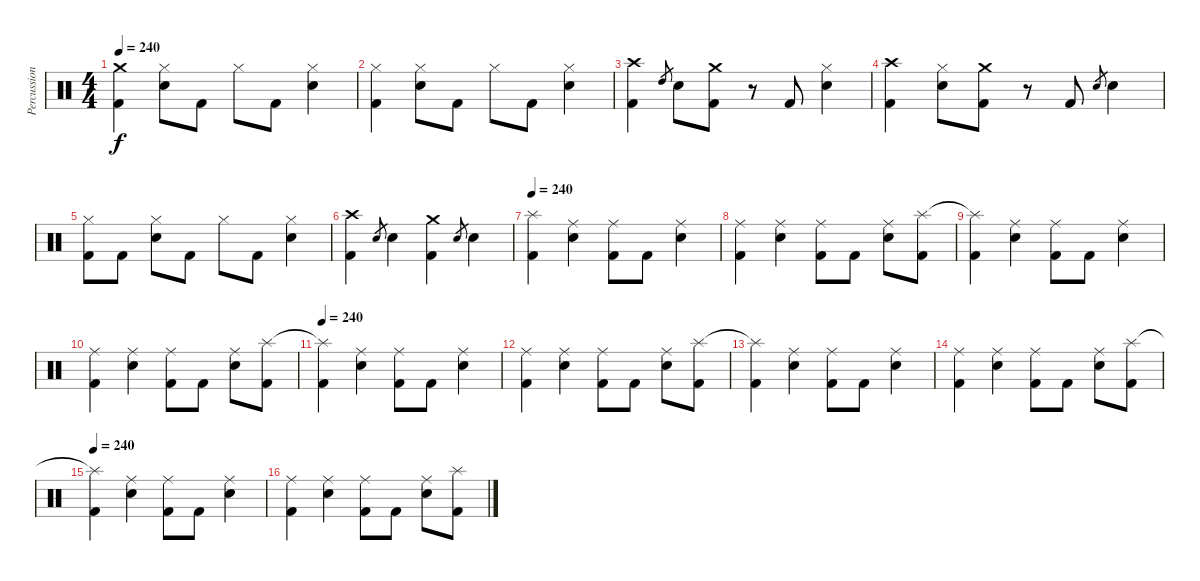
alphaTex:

\track ("Percussions" "Percussion") {instrument percussion}
\staff {score}
\articulation defaults
\ts (4 4)
\tempo 240
\clef neutral
\ks c
("Crash medium (hit)" "Kick (hit) 2").4{dy f} ("Hi-Hat (closed)" "Electric Snare (hit)").8 "Kick (hit) 2".8 "Hi-Hat (closed)".8 "Kick (hit) 2".8 ("Hi-Hat (closed)" "Electric Snare (hit)").4 |
("Hi-Hat (closed)" "Kick (hit) 2").4 ("Hi-Hat (closed)" "Electric Snare (hit)").8 "Kick (hit) 2".8 "Hi-Hat (closed)".8 "Kick (hit) 2".8 ("Hi-Hat (closed)" "Electric Snare (hit)").4 |
("Crash high (hit)" "Kick (hit) 2").4 "High Tom (hit)".8{gr} "Electric Snare (hit)".8 ("Crash medium (hit)" "Kick (hit) 2").8 r.8 "Kick (hit) 2".8 ("Hi-Hat (closed)" "Electric Snare (hit)").4 |
("Crash high (hit)" "Kick (hit) 2").4 ("Hi-Hat (closed)" "Electric Snare (hit)").8 ("Crash medium (hit)" "Kick (hit) 2").8 r.8 "Kick (hit) 2".8 "Electric Snare (hit)".8{gr} "Electric Snare (hit)".4 |
("Hi-Hat (closed)" "Kick (hit) 2").8 "Kick (hit) 2".8 ("Hi-Hat (closed)" "Electric Snare (hit)").8 "Kick (hit) 2".8 "Hi-Hat (closed)".8 "Kick (hit) 2".8 ("Hi-Hat (closed)" "Electric Snare (hit)").4 |
("Crash high (hit)" "Kick (hit) 2").4 "Electric Snare (hit)".8{gr} "Electric Snare (hit)".4 ("Crash medium (hit)" "Kick (hit) 2").4 "Electric Snare (hit)".8{gr} "Electric Snare (hit)".4 |
\tempo 240
("Splash (hit)" "Kick (hit) 2").4 ("Ride (middle)" "Electric Snare (hit)").4 ("Ride (middle)" "Kick (hit) 2").8 "Kick (hit) 2".8 ("Ride (middle)" "Electric Snare (hit)").4 |
("Ride (middle)" "Kick (hit) 2").4 ("Ride (middle)" "Electric Snare (hit)").4 ("Ride (middle)" "Kick (hit) 2").8 "Kick (hit) 2".8 ("Ride (middle)" "Electric Snare (hit)").8 ("Splash (hit)" "Kick (hit) 2").8 |
("Splash (hit)"{t} "Kick (hit) 2").4 ("Ride (middle)" "Electric Snare (hit)").4 ("Ride (middle)" "Kick (hit) 2").8 "Kick (hit) 2".8 ("Ride (middle)" "Electric Snare (hit)").4 |
("Ride (middle)" "Kick (hit) 2").4 ("Ride (middle)" "Electric Snare (hit)").4 ("Ride (middle)" "Kick (hit) 2").8 "Kick (hit) 2".8 ("Ride (middle)" "Electric Snare (hit)").8 ("Splash (hit)" "Kick (hit) 2").8 |
\tempo 240
("Splash (hit)"{t} "Kick (hit) 2").4 ("Ride (middle)" "Electric Snare (hit)").4 ("Ride (middle)" "Kick (hit) 2").8 "Kick (hit) 2".8 ("Ride (middle)" "Electric Snare (hit)").4 |
("Ride (middle)" "Kick (hit) 2").4 ("Ride (middle)" "Electric Snare (hit)").4 ("Ride (middle)" "Kick (hit) 2").8 "Kick (hit) 2".8 ("Ride (middle)" "Electric Snare (hit)").8 ("Splash (hit)" "Kick (hit) 2").8 |
("Splash (hit)"{t} "Kick (hit) 2").4 ("Ride (middle)" "Electric Snare (hit)").4 ("Ride (middle)" "Kick (hit) 2").8 "Kick (hit) 2".8 ("Ride (middle)" "Electric Snare (hit)").4 |
("Ride (middle)" "Kick (hit) 2").4 ("Ride (middle)" "Electric Snare (hit)").4 ("Ride (middle)" "Kick (hit) 2").8 "Kick (hit) 2".8 ("Ride (middle)" "Electric Snare (hit)").8 ("Splash (hit)" "Kick (hit) 2").8 |
\tempo 240
("Splash (hit)"{t} "Kick (hit) 2").4 ("Ride (middle)" "Electric Snare (hit)").4 ("Ride (middle)" "Kick (hit) 2").8 "Kick (hit) 2".8 ("Ride (middle)" "Electric Snare (hit)").4 |
("Ride (middle)" "Kick (hit) 2").4 ("Ride (middle)" "Electric Snare (hit)").4 ("Ride (middle)" "Kick (hit) 2").8 "Kick (hit) 2".8 ("Ride (middle)" "Electric Snare (hit)").8 ("Splash (hit)" "Kick (hit) 2").8
